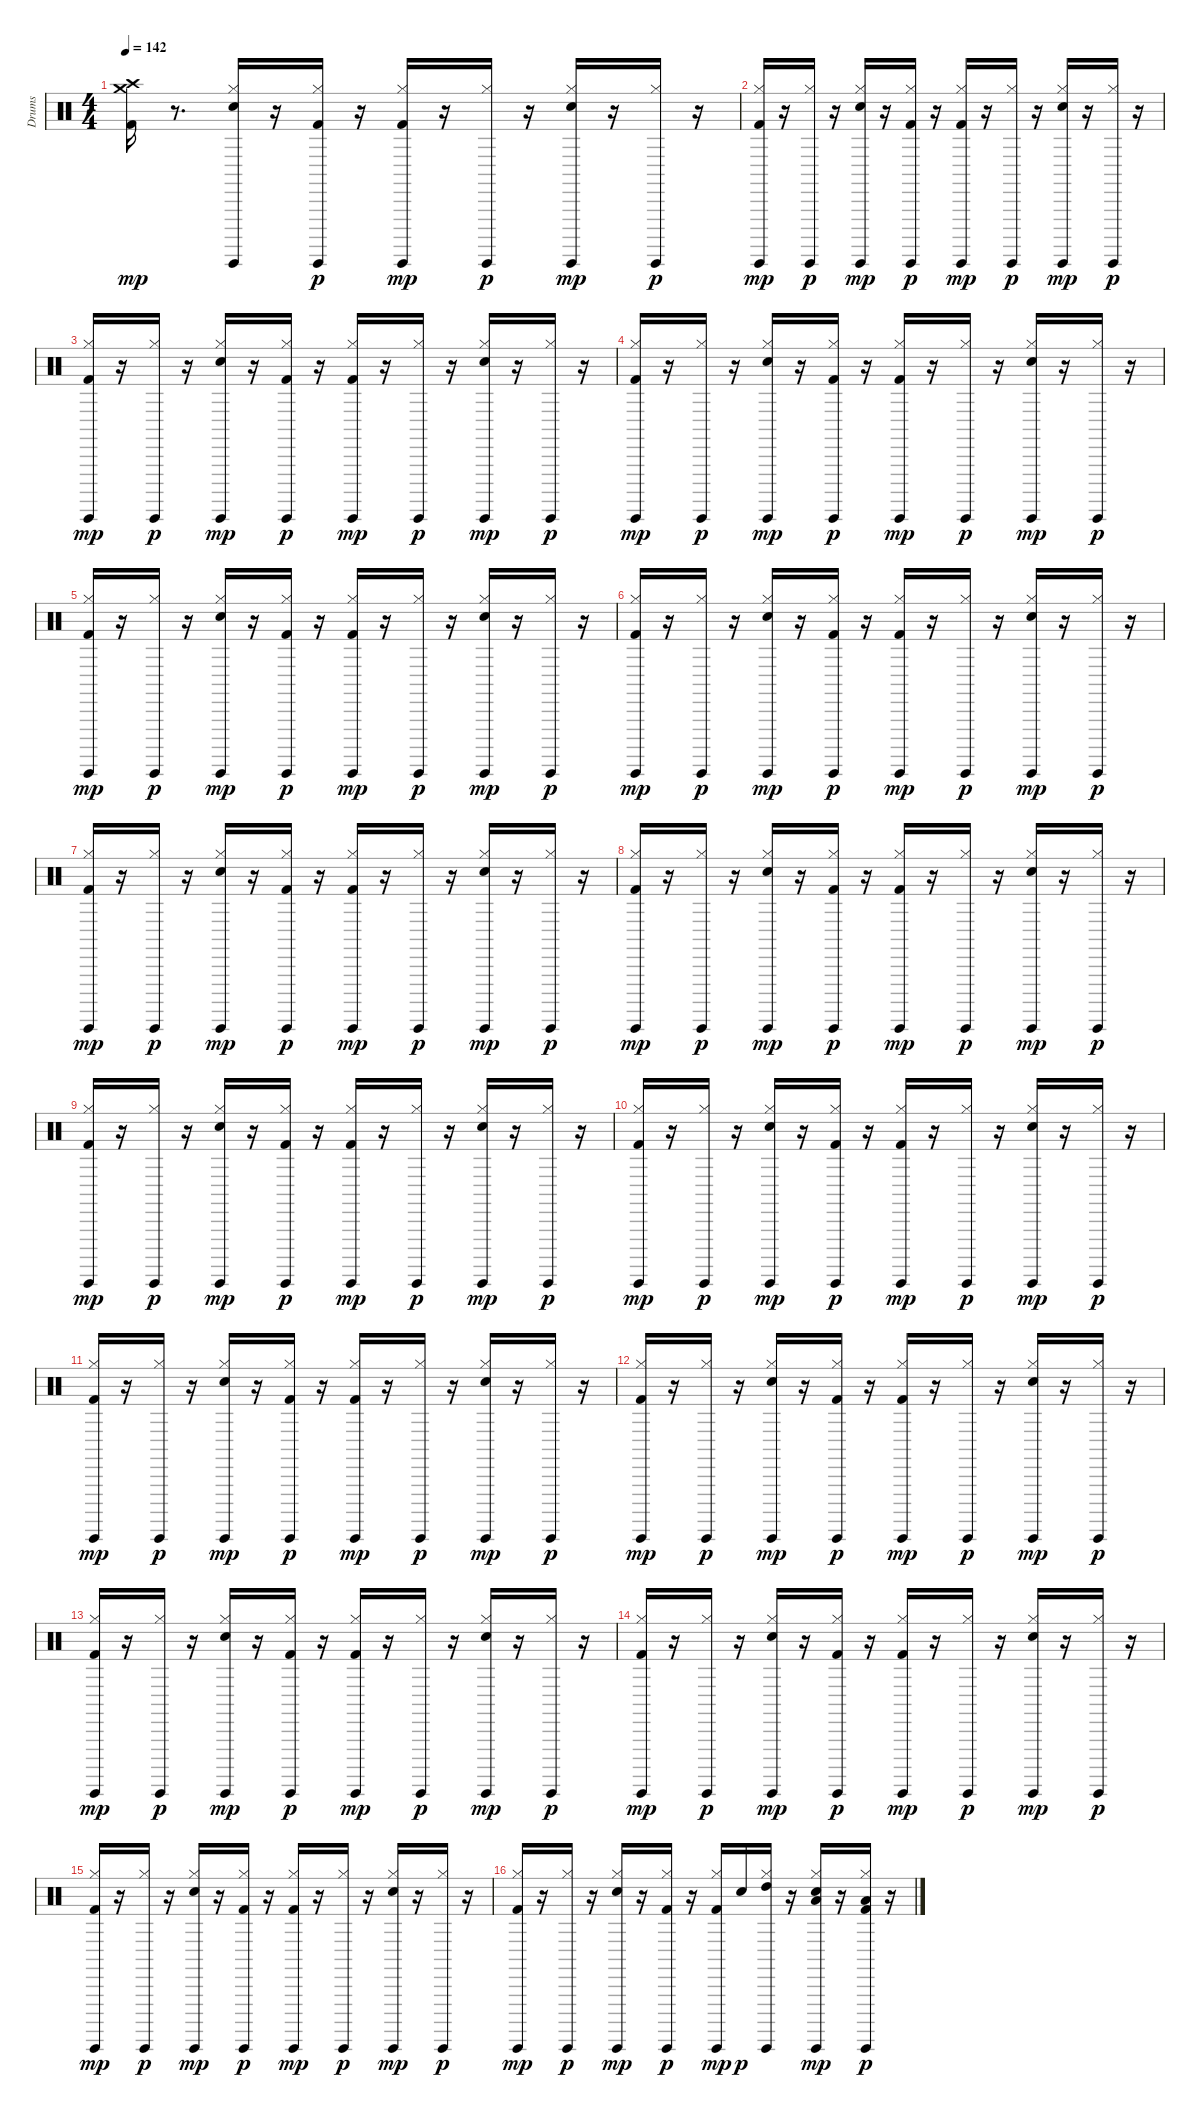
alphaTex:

\track ("Drums" "Drums") {instrument percussion}
\staff {score}
\articulation defaults
\ts (4 4)
\tempo 142
\clef neutral
\ks c
("Kick (hit) 2" "Crash medium (hit)" "Crash high (hit)").16{dy mp} r.8{d} ("Snare (hit) 2" "Hi-Hat (closed)" "Guiro (hit)").16 r.16 ("Kick (hit) 2" "Hi-Hat (closed)" "Guiro (hit)").16{dy p} r.16 ("Kick (hit) 2" "Hi-Hat (closed)" "Guiro (hit)").16{dy mp} r.16 ("Hi-Hat (closed)" "Guiro (hit)").16{dy p} r.16 ("Snare (hit) 2" "Hi-Hat (closed)" "Guiro (hit)").16{dy mp} r.16 ("Hi-Hat (closed)" "Guiro (hit)").16{dy p} r.16 |
("Kick (hit) 2" "Hi-Hat (closed)" "Guiro (hit)").16{dy mp} r.16 ("Hi-Hat (closed)" "Guiro (hit)").16{dy p} r.16 ("Snare (hit) 2" "Hi-Hat (closed)" "Guiro (hit)").16{dy mp} r.16 ("Kick (hit) 2" "Hi-Hat (closed)" "Guiro (hit)").16{dy p} r.16 ("Kick (hit) 2" "Hi-Hat (closed)" "Guiro (hit)").16{dy mp} r.16 ("Hi-Hat (closed)" "Guiro (hit)").16{dy p} r.16 ("Snare (hit) 2" "Hi-Hat (closed)" "Guiro (hit)").16{dy mp} r.16 ("Hi-Hat (closed)" "Guiro (hit)").16{dy p} r.16 |
("Kick (hit) 2" "Hi-Hat (closed)" "Guiro (hit)").16{dy mp} r.16 ("Hi-Hat (closed)" "Guiro (hit)").16{dy p} r.16 ("Snare (hit) 2" "Hi-Hat (closed)" "Guiro (hit)").16{dy mp} r.16 ("Kick (hit) 2" "Hi-Hat (closed)" "Guiro (hit)").16{dy p} r.16 ("Kick (hit) 2" "Hi-Hat (closed)" "Guiro (hit)").16{dy mp} r.16 ("Hi-Hat (closed)" "Guiro (hit)").16{dy p} r.16 ("Snare (hit) 2" "Hi-Hat (closed)" "Guiro (hit)").16{dy mp} r.16 ("Hi-Hat (closed)" "Guiro (hit)").16{dy p} r.16 |
("Kick (hit) 2" "Hi-Hat (closed)" "Guiro (hit)").16{dy mp} r.16 ("Hi-Hat (closed)" "Guiro (hit)").16{dy p} r.16 ("Snare (hit) 2" "Hi-Hat (closed)" "Guiro (hit)").16{dy mp} r.16 ("Kick (hit) 2" "Hi-Hat (closed)" "Guiro (hit)").16{dy p} r.16 ("Kick (hit) 2" "Hi-Hat (closed)" "Guiro (hit)").16{dy mp} r.16 ("Hi-Hat (closed)" "Guiro (hit)").16{dy p} r.16 ("Snare (hit) 2" "Hi-Hat (closed)" "Guiro (hit)").16{dy mp} r.16 ("Hi-Hat (closed)" "Guiro (hit)").16{dy p} r.16 |
("Kick (hit) 2" "Hi-Hat (closed)" "Guiro (hit)").16{dy mp} r.16 ("Hi-Hat (closed)" "Guiro (hit)").16{dy p} r.16 ("Snare (hit) 2" "Hi-Hat (closed)" "Guiro (hit)").16{dy mp} r.16 ("Kick (hit) 2" "Hi-Hat (closed)" "Guiro (hit)").16{dy p} r.16 ("Kick (hit) 2" "Hi-Hat (closed)" "Guiro (hit)").16{dy mp} r.16 ("Hi-Hat (closed)" "Guiro (hit)").16{dy p} r.16 ("Snare (hit) 2" "Hi-Hat (closed)" "Guiro (hit)").16{dy mp} r.16 ("Hi-Hat (closed)" "Guiro (hit)").16{dy p} r.16 |
("Kick (hit) 2" "Hi-Hat (closed)" "Guiro (hit)").16{dy mp} r.16 ("Hi-Hat (closed)" "Guiro (hit)").16{dy p} r.16 ("Snare (hit) 2" "Hi-Hat (closed)" "Guiro (hit)").16{dy mp} r.16 ("Kick (hit) 2" "Hi-Hat (closed)" "Guiro (hit)").16{dy p} r.16 ("Kick (hit) 2" "Hi-Hat (closed)" "Guiro (hit)").16{dy mp} r.16 ("Hi-Hat (closed)" "Guiro (hit)").16{dy p} r.16 ("Snare (hit) 2" "Hi-Hat (closed)" "Guiro (hit)").16{dy mp} r.16 ("Hi-Hat (closed)" "Guiro (hit)").16{dy p} r.16 |
("Kick (hit) 2" "Hi-Hat (closed)" "Guiro (hit)").16{dy mp} r.16 ("Hi-Hat (closed)" "Guiro (hit)").16{dy p} r.16 ("Snare (hit) 2" "Hi-Hat (closed)" "Guiro (hit)").16{dy mp} r.16 ("Kick (hit) 2" "Hi-Hat (closed)" "Guiro (hit)").16{dy p} r.16 ("Kick (hit) 2" "Hi-Hat (closed)" "Guiro (hit)").16{dy mp} r.16 ("Hi-Hat (closed)" "Guiro (hit)").16{dy p} r.16 ("Snare (hit) 2" "Hi-Hat (closed)" "Guiro (hit)").16{dy mp} r.16 ("Hi-Hat (closed)" "Guiro (hit)").16{dy p} r.16 |
("Kick (hit) 2" "Hi-Hat (closed)" "Guiro (hit)").16{dy mp} r.16 ("Hi-Hat (closed)" "Guiro (hit)").16{dy p} r.16 ("Snare (hit) 2" "Hi-Hat (closed)" "Guiro (hit)").16{dy mp} r.16 ("Kick (hit) 2" "Hi-Hat (closed)" "Guiro (hit)").16{dy p} r.16 ("Kick (hit) 2" "Hi-Hat (closed)" "Guiro (hit)").16{dy mp} r.16 ("Hi-Hat (closed)" "Guiro (hit)").16{dy p} r.16 ("Snare (hit) 2" "Hi-Hat (closed)" "Guiro (hit)").16{dy mp} r.16 ("Hi-Hat (closed)" "Guiro (hit)").16{dy p} r.16 |
("Kick (hit) 2" "Hi-Hat (closed)" "Guiro (hit)").16{dy mp} r.16 ("Hi-Hat (closed)" "Guiro (hit)").16{dy p} r.16 ("Snare (hit) 2" "Hi-Hat (closed)" "Guiro (hit)").16{dy mp} r.16 ("Kick (hit) 2" "Hi-Hat (closed)" "Guiro (hit)").16{dy p} r.16 ("Kick (hit) 2" "Hi-Hat (closed)" "Guiro (hit)").16{dy mp} r.16 ("Hi-Hat (closed)" "Guiro (hit)").16{dy p} r.16 ("Snare (hit) 2" "Hi-Hat (closed)" "Guiro (hit)").16{dy mp} r.16 ("Hi-Hat (closed)" "Guiro (hit)").16{dy p} r.16 |
("Kick (hit) 2" "Hi-Hat (closed)" "Guiro (hit)").16{dy mp} r.16 ("Hi-Hat (closed)" "Guiro (hit)").16{dy p} r.16 ("Snare (hit) 2" "Hi-Hat (closed)" "Guiro (hit)").16{dy mp} r.16 ("Kick (hit) 2" "Hi-Hat (closed)" "Guiro (hit)").16{dy p} r.16 ("Kick (hit) 2" "Hi-Hat (closed)" "Guiro (hit)").16{dy mp} r.16 ("Hi-Hat (closed)" "Guiro (hit)").16{dy p} r.16 ("Snare (hit) 2" "Hi-Hat (closed)" "Guiro (hit)").16{dy mp} r.16 ("Hi-Hat (closed)" "Guiro (hit)").16{dy p} r.16 |
("Kick (hit) 2" "Hi-Hat (closed)" "Guiro (hit)").16{dy mp} r.16 ("Hi-Hat (closed)" "Guiro (hit)").16{dy p} r.16 ("Snare (hit) 2" "Hi-Hat (closed)" "Guiro (hit)").16{dy mp} r.16 ("Kick (hit) 2" "Hi-Hat (closed)" "Guiro (hit)").16{dy p} r.16 ("Kick (hit) 2" "Hi-Hat (closed)" "Guiro (hit)").16{dy mp} r.16 ("Hi-Hat (closed)" "Guiro (hit)").16{dy p} r.16 ("Snare (hit) 2" "Hi-Hat (closed)" "Guiro (hit)").16{dy mp} r.16 ("Hi-Hat (closed)" "Guiro (hit)").16{dy p} r.16 |
("Kick (hit) 2" "Hi-Hat (closed)" "Guiro (hit)").16{dy mp} r.16 ("Hi-Hat (closed)" "Guiro (hit)").16{dy p} r.16 ("Snare (hit) 2" "Hi-Hat (closed)" "Guiro (hit)").16{dy mp} r.16 ("Kick (hit) 2" "Hi-Hat (closed)" "Guiro (hit)").16{dy p} r.16 ("Kick (hit) 2" "Hi-Hat (closed)" "Guiro (hit)").16{dy mp} r.16 ("Hi-Hat (closed)" "Guiro (hit)").16{dy p} r.16 ("Snare (hit) 2" "Hi-Hat (closed)" "Guiro (hit)").16{dy mp} r.16 ("Hi-Hat (closed)" "Guiro (hit)").16{dy p} r.16 |
("Kick (hit) 2" "Hi-Hat (closed)" "Guiro (hit)").16{dy mp} r.16 ("Hi-Hat (closed)" "Guiro (hit)").16{dy p} r.16 ("Snare (hit) 2" "Hi-Hat (closed)" "Guiro (hit)").16{dy mp} r.16 ("Kick (hit) 2" "Hi-Hat (closed)" "Guiro (hit)").16{dy p} r.16 ("Kick (hit) 2" "Hi-Hat (closed)" "Guiro (hit)").16{dy mp} r.16 ("Hi-Hat (closed)" "Guiro (hit)").16{dy p} r.16 ("Snare (hit) 2" "Hi-Hat (closed)" "Guiro (hit)").16{dy mp} r.16 ("Hi-Hat (closed)" "Guiro (hit)").16{dy p} r.16 |
("Kick (hit) 2" "Hi-Hat (closed)" "Guiro (hit)").16{dy mp} r.16 ("Hi-Hat (closed)" "Guiro (hit)").16{dy p} r.16 ("Snare (hit) 2" "Hi-Hat (closed)" "Guiro (hit)").16{dy mp} r.16 ("Kick (hit) 2" "Hi-Hat (closed)" "Guiro (hit)").16{dy p} r.16 ("Kick (hit) 2" "Hi-Hat (closed)" "Guiro (hit)").16{dy mp} r.16 ("Hi-Hat (closed)" "Guiro (hit)").16{dy p} r.16 ("Snare (hit) 2" "Hi-Hat (closed)" "Guiro (hit)").16{dy mp} r.16 ("Hi-Hat (closed)" "Guiro (hit)").16{dy p} r.16 |
("Kick (hit) 2" "Hi-Hat (closed)" "Guiro (hit)").16{dy mp} r.16 ("Hi-Hat (closed)" "Guiro (hit)").16{dy p} r.16 ("Snare (hit) 2" "Hi-Hat (closed)" "Guiro (hit)").16{dy mp} r.16 ("Kick (hit) 2" "Hi-Hat (closed)" "Guiro (hit)").16{dy p} r.16 ("Kick (hit) 2" "Hi-Hat (closed)" "Guiro (hit)").16{dy mp} r.16 ("Hi-Hat (closed)" "Guiro (hit)").16{dy p} r.16 ("Snare (hit) 2" "Hi-Hat (closed)" "Guiro (hit)").16{dy mp} r.16 ("Hi-Hat (closed)" "Guiro (hit)").16{dy p} r.16 |
("Kick (hit) 2" "Hi-Hat (closed)" "Guiro (hit)").16{dy mp} r.16 ("Hi-Hat (closed)" "Guiro (hit)").16{dy p} r.16 ("Snare (hit) 2" "Hi-Hat (closed)" "Guiro (hit)").16{dy mp} r.16 ("Kick (hit) 2" "Hi-Hat (closed)" "Guiro (hit)").16{dy p} r.16 ("Kick (hit) 2" "Hi-Hat (closed)" "Guiro (hit)").16{dy mp} "Snare (hit) 2".16{dy p} ("Hi-Hat (closed)" "High Tom (hit)" "Guiro (hit)").16 r.16 ("Snare (hit) 2" "Hi-Hat (closed)" "Low Tom (hit)" "Guiro (hit)").16{dy mp} r.16 ("Kick (hit) 2" "Hi-Hat (closed)" "Low Floor Tom (hit)" "Guiro (hit)").16{dy p} r.16
